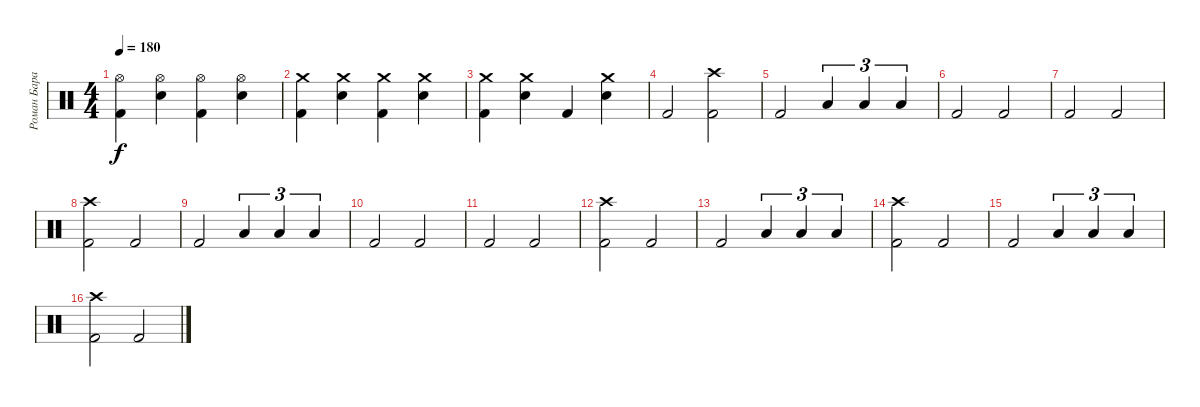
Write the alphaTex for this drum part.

\track ("Роман Баранюк" "Роман Бара") {instrument percussion}
\staff {score}
\articulation defaults
\ts (4 4)
\tempo 180
\clef neutral
\ks c
("Hi-Hat (open)" "Kick (hit) 2").4{dy f} ("Hi-Hat (open)" "Snare (hit) 2").4 ("Hi-Hat (open)" "Kick (hit) 2").4 ("Hi-Hat (open)" "Snare (hit) 2").4 |
("Crash medium (hit)" "Kick (hit) 2").4 ("Crash medium (hit)" "Snare (hit) 2").4 ("Crash medium (hit)" "Kick (hit) 2").4 ("Crash medium (hit)" "Snare (hit) 2").4 |
("Crash medium (hit)" "Kick (hit) 2").4 ("Crash medium (hit)" "Snare (hit) 2").4 "Kick (hit) 2".4 ("Crash medium (hit)" "Snare (hit) 2").4 |
"Kick (hit) 2".2 ("Crash high (hit)" "Kick (hit) 2").2 |
"Kick (hit) 2".2 "Low Tom (hit)".4{tu (3 2)} "Low Tom (hit)".4{tu (3 2)} "Low Tom (hit)".4{tu (3 2)} |
"Kick (hit) 2".2 "Kick (hit) 2".2 |
"Kick (hit) 2".2 "Kick (hit) 2".2 |
("Crash high (hit)" "Kick (hit) 2").2 "Kick (hit) 2".2 |
"Kick (hit) 2".2 "Low Tom (hit)".4{tu (3 2)} "Low Tom (hit)".4{tu (3 2)} "Low Tom (hit)".4{tu (3 2)} |
"Kick (hit) 2".2 "Kick (hit) 2".2 |
"Kick (hit) 2".2 "Kick (hit) 2".2 |
("Crash high (hit)" "Kick (hit) 2").2 "Kick (hit) 2".2 |
"Kick (hit) 2".2 "Low Tom (hit)".4{tu (3 2)} "Low Tom (hit)".4{tu (3 2)} "Low Tom (hit)".4{tu (3 2)} |
("Crash high (hit)" "Kick (hit) 2").2 "Kick (hit) 2".2 |
"Kick (hit) 2".2 "Low Tom (hit)".4{tu (3 2)} "Low Tom (hit)".4{tu (3 2)} "Low Tom (hit)".4{tu (3 2)} |
("Crash high (hit)" "Kick (hit) 2").2 "Kick (hit) 2".2
